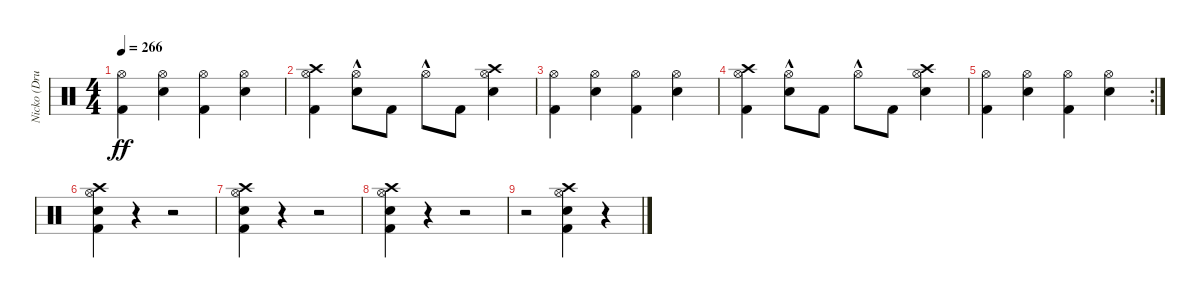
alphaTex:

\track ("Nicko (Drums)" "Nicko (Dru") {instrument percussion}
\staff {score}
\articulation defaults
\ts (4 4)
\tempo 266
\clef neutral
\ks c
("Kick (hit) 2" "Hi-Hat (open)").4{dy ff} ("Snare (hit) 2" "Hi-Hat (open)").4 ("Kick (hit) 2" "Hi-Hat (open)").4 ("Snare (hit) 2" "Hi-Hat (open)").4 |
("Kick (hit) 2" "Hi-Hat (open)" "Crash high (hit)").4 ("Snare (hit) 2" "Hi-Hat (open)"{hac}).8 "Kick (hit) 2".8 "Hi-Hat (open)"{hac}.8 "Kick (hit) 2".8 ("Snare (hit) 2" "Hi-Hat (open)" "Crash high (hit)").4 |
("Kick (hit) 2" "Hi-Hat (open)").4 ("Snare (hit) 2" "Hi-Hat (open)").4 ("Kick (hit) 2" "Hi-Hat (open)").4 ("Snare (hit) 2" "Hi-Hat (open)").4 |
("Kick (hit) 2" "Hi-Hat (open)" "Crash high (hit)").4 ("Snare (hit) 2" "Hi-Hat (open)"{hac}).8 "Kick (hit) 2".8 "Hi-Hat (open)"{hac}.8 "Kick (hit) 2".8 ("Snare (hit) 2" "Hi-Hat (open)" "Crash high (hit)").4 |
\rc 2
("Kick (hit) 2" "Hi-Hat (open)").4 ("Snare (hit) 2" "Hi-Hat (open)").4 ("Kick (hit) 2" "Hi-Hat (open)").4 ("Snare (hit) 2" "Hi-Hat (open)").4 |
("Kick (hit) 2" "Snare (hit) 2" "Hi-Hat (open)" "Crash high (hit)").4 r.4 r.2 |
("Kick (hit) 2" "Snare (hit) 2" "Hi-Hat (open)" "Crash high (hit)").4 r.4 r.2 |
("Kick (hit) 2" "Snare (hit) 2" "Hi-Hat (open)" "Crash high (hit)").4 r.4 r.2 |
r.2 ("Kick (hit) 2" "Snare (hit) 2" "Hi-Hat (open)" "Crash high (hit)").4 r.4
